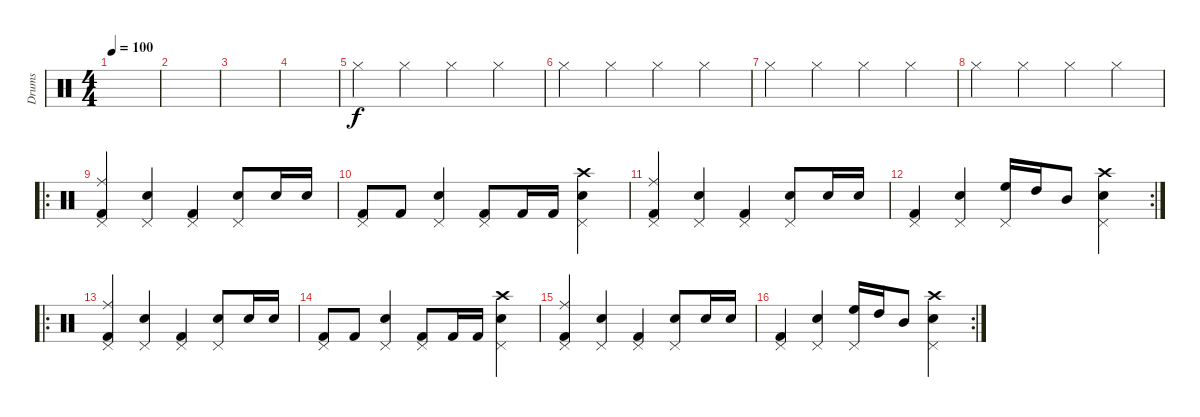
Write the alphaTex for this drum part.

\track ("Drums" "Drums") {instrument percussion}
\staff {score}
\articulation defaults
\ts (4 4)
\tempo 100
\clef neutral
\ks c
|
|
|
|
"Hi-Hat (closed)".4 "Hi-Hat (closed)".4 "Hi-Hat (closed)".4 "Hi-Hat (closed)".4 |
"Hi-Hat (closed)".4 "Hi-Hat (closed)".4 "Hi-Hat (closed)".4 "Hi-Hat (closed)".4 |
"Hi-Hat (closed)".4 "Hi-Hat (closed)".4 "Hi-Hat (closed)".4 "Hi-Hat (closed)".4 |
"Hi-Hat (closed)".4 "Hi-Hat (closed)".4 "Hi-Hat (closed)".4 "Hi-Hat (closed)".4 |
\ro
("Pedal Hi-Hat (hit)" "Ride (middle)" "Kick (hit) 2").4 ("Pedal Hi-Hat (hit)" "Electric Snare (hit)").4 ("Pedal Hi-Hat (hit)" "Kick (hit) 2").4 ("Pedal Hi-Hat (hit)" "Electric Snare (hit)").8 "Electric Snare (hit)".16 "Snare (hit) 2".16 |
("Pedal Hi-Hat (hit)" "Kick (hit) 2").8 "Kick (hit) 2".8 ("Pedal Hi-Hat (hit)" "Electric Snare (hit)").4 ("Pedal Hi-Hat (hit)" "Kick (hit) 2").8 "Kick (hit) 2".16 "Kick (hit) 2".16 ("Crash high (hit)" "Electric Snare (hit)" "Pedal Hi-Hat (hit)").4 |
("Pedal Hi-Hat (hit)" "Ride (middle)" "Kick (hit) 2").4 ("Pedal Hi-Hat (hit)" "Electric Snare (hit)").4 ("Pedal Hi-Hat (hit)" "Kick (hit) 2").4 ("Pedal Hi-Hat (hit)" "Electric Snare (hit)").8 "Electric Snare (hit)".16 "Electric Snare (hit)".16 |
\rc 2
("Pedal Hi-Hat (hit)" "Kick (hit) 2").4 ("Pedal Hi-Hat (hit)" "Electric Snare (hit)").4 ("Pedal Hi-Hat (hit)" "High Floor Tom (hit)").16 "High Tom (hit)".16 "Mid Tom (hit)".8 ("Crash high (hit)" "Electric Snare (hit)" "Pedal Hi-Hat (hit)").4 |
\ro
("Pedal Hi-Hat (hit)" "Ride (middle)" "Kick (hit) 2").4 ("Pedal Hi-Hat (hit)" "Electric Snare (hit)").4 ("Pedal Hi-Hat (hit)" "Kick (hit) 2").4 ("Pedal Hi-Hat (hit)" "Electric Snare (hit)").8 "Electric Snare (hit)".16 "Snare (hit) 2".16 |
("Pedal Hi-Hat (hit)" "Kick (hit) 2").8 "Kick (hit) 2".8 ("Pedal Hi-Hat (hit)" "Electric Snare (hit)").4 ("Pedal Hi-Hat (hit)" "Kick (hit) 2").8 "Kick (hit) 2".16 "Kick (hit) 2".16 ("Crash high (hit)" "Electric Snare (hit)" "Pedal Hi-Hat (hit)").4 |
("Pedal Hi-Hat (hit)" "Ride (middle)" "Kick (hit) 2").4 ("Pedal Hi-Hat (hit)" "Electric Snare (hit)").4 ("Pedal Hi-Hat (hit)" "Kick (hit) 2").4 ("Pedal Hi-Hat (hit)" "Electric Snare (hit)").8 "Electric Snare (hit)".16 "Electric Snare (hit)".16 |
\rc 2
("Pedal Hi-Hat (hit)" "Kick (hit) 2").4 ("Pedal Hi-Hat (hit)" "Electric Snare (hit)").4 ("Pedal Hi-Hat (hit)" "High Floor Tom (hit)").16 "High Tom (hit)".16 "Mid Tom (hit)".8 ("Crash high (hit)" "Electric Snare (hit)" "Pedal Hi-Hat (hit)").4
